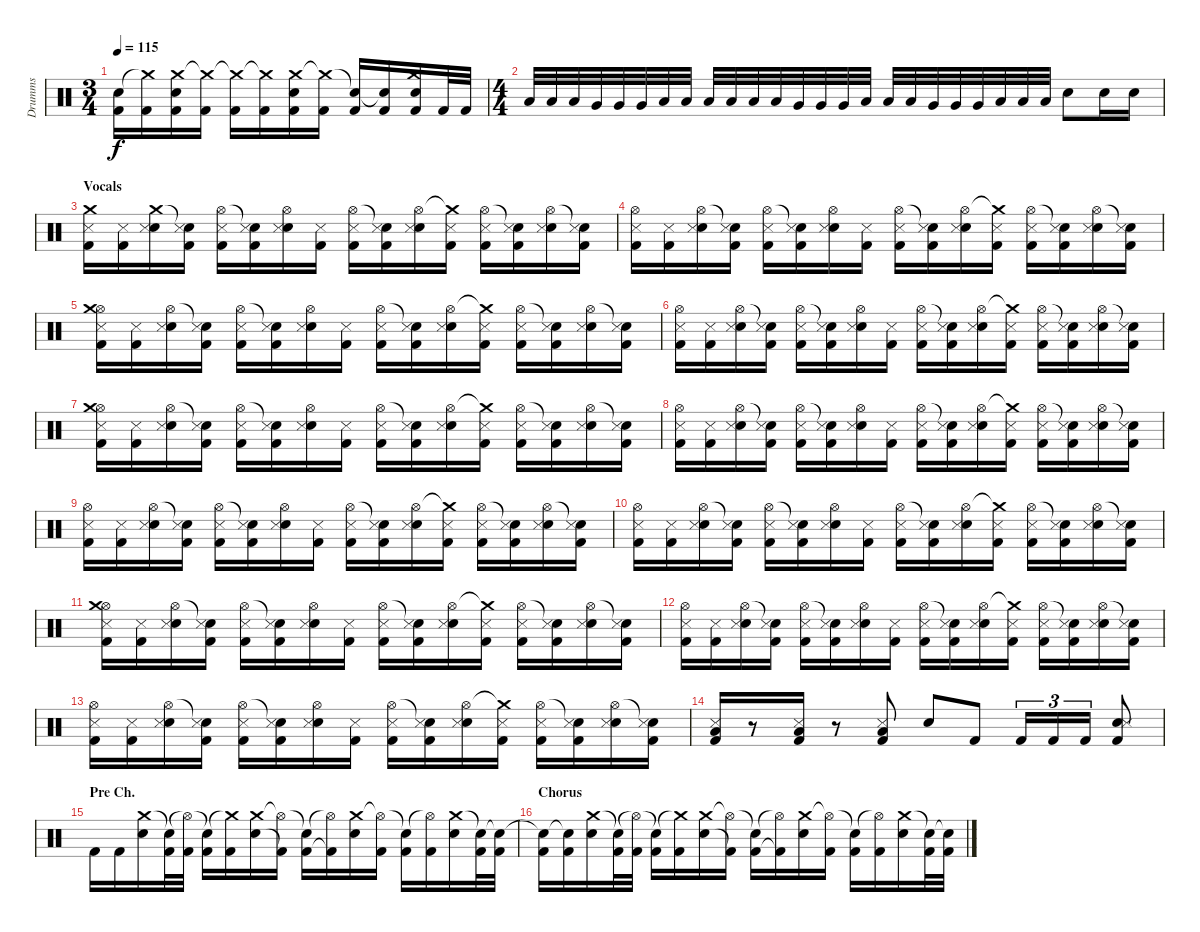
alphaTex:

\track ("Drumms" "Drumms") {instrument percussion}
\staff {score}
\articulation defaults
\ts (3 4)
\tempo 115
\clef neutral
\ks c
("Snare (hit)"{t} "Kick (hit) 2").16{dy f} ("Crash medium (hit)"{t} "Kick (hit) 2").16 ("Crash medium (hit)" "Kick (hit) 2" "Electric Snare (hit)").16 ("Crash medium (hit)"{t} "Kick (hit) 2").16 ("Crash medium (hit)"{t} "Kick (hit) 2").16 ("Crash medium (hit)"{t} "Kick (hit) 2").16 ("Crash medium (hit)" "Kick (hit) 2" "Electric Snare (hit)").16 ("Crash medium (hit)"{t} "Kick (hit) 2").16 ("Snare (hit)"{t} "Kick (hit) 2").16 ("Snare (hit)"{t} "Kick (hit) 2").16 ("Crash medium (hit)" "Kick (hit) 2" "Electric Snare (hit)").16 "Kick (hit) 2".32 "Kick (hit) 2".32 |
\ts (4 4)
"Low Floor Tom (hit)".32 "Low Floor Tom (hit)".32 "Low Floor Tom (hit)".32 "Very Low Tom (hit)".32 "Very Low Tom (hit)".32 "Very Low Tom (hit)".32 "Low Tom (hit)".32 "Low Tom (hit)".32 "Low Tom (hit)".32 "Low Floor Tom (hit)".32 "Low Floor Tom (hit)".32 "Low Floor Tom (hit)".32 "Very Low Tom (hit)".32 "Very Low Tom (hit)".32 "Very Low Tom (hit)".32 "Low Tom (hit)".32 "Low Tom (hit)".32 "Low Tom (hit)".32 "Very Low Tom (hit)".32 "Very Low Tom (hit)".32 "Very Low Tom (hit)".32 "Low Tom (hit)".32 "Low Tom (hit)".32 "Low Tom (hit)".32 "Electric Snare (hit)".8 "Electric Snare (hit)".16 "Electric Snare (hit)".16 |
\section ("" "Vocals")
("Crash medium (hit)" "Kick (hit) 2" "Snare (side stick) 3").16 ("Kick (hit) 2" "Snare (side stick) 3").16 ("Crash medium (hit)" "Electric Snare (hit)" "Snare (side stick) 3").16 ("Snare (hit)"{t} "Kick (hit) 2" "Snare (side stick) 3").16 ("Hi-Hat (open)" "Kick (hit) 2" "Snare (side stick) 3").16 ("Snare (hit)"{t} "Kick (hit) 2" "Snare (side stick) 3").16 ("Hi-Hat (open)" "Electric Snare (hit)" "Snare (side stick) 3").16 ("Kick (hit) 2" "Snare (side stick) 3").16 ("Hi-Hat (open)" "Kick (hit) 2" "Snare (side stick) 3").16 ("Snare (hit)"{t} "Kick (hit) 2" "Snare (side stick) 3").16 ("Hi-Hat (open)" "Electric Snare (hit)" "Snare (side stick) 3").16 ("Crash medium (hit)"{t} "Kick (hit) 2" "Snare (side stick) 3").16 ("Hi-Hat (open)" "Kick (hit) 2" "Snare (side stick) 3").16 ("Snare (hit)"{t} "Kick (hit) 2" "Snare (side stick) 3").16 ("Hi-Hat (open)" "Electric Snare (hit)" "Snare (side stick) 3").16 ("Snare (hit)"{t} "Kick (hit) 2" "Snare (side stick) 3").16 |
("Hi-Hat (open)" "Kick (hit) 2" "Snare (side stick) 3").16 ("Kick (hit) 2" "Snare (side stick) 3").16 ("Hi-Hat (open)" "Electric Snare (hit)" "Snare (side stick) 3").16 ("Snare (hit)"{t} "Kick (hit) 2" "Snare (side stick) 3").16 ("Hi-Hat (open)" "Kick (hit) 2" "Snare (side stick) 3").16 ("Snare (hit)"{t} "Kick (hit) 2" "Snare (side stick) 3").16 ("Hi-Hat (open)" "Electric Snare (hit)" "Snare (side stick) 3").16 ("Kick (hit) 2" "Snare (side stick) 3").16 ("Hi-Hat (open)" "Kick (hit) 2" "Snare (side stick) 3").16 ("Snare (hit)"{t} "Kick (hit) 2" "Snare (side stick) 3").16 ("Hi-Hat (open)" "Electric Snare (hit)" "Snare (side stick) 3").16 ("Crash medium (hit)"{t} "Kick (hit) 2" "Snare (side stick) 3").16 ("Hi-Hat (open)" "Kick (hit) 2" "Snare (side stick) 3").16 ("Snare (hit)"{t} "Kick (hit) 2" "Snare (side stick) 3").16 ("Hi-Hat (open)" "Electric Snare (hit)" "Snare (side stick) 3").16 ("Snare (hit)"{t} "Kick (hit) 2" "Snare (side stick) 3").16 |
("Hi-Hat (open)" "Crash medium (hit)" "Kick (hit) 2" "Snare (side stick) 3").16 ("Kick (hit) 2" "Snare (side stick) 3").16 ("Hi-Hat (open)" "Electric Snare (hit)" "Snare (side stick) 3").16 ("Snare (hit)"{t} "Kick (hit) 2" "Snare (side stick) 3").16 ("Hi-Hat (open)" "Kick (hit) 2" "Snare (side stick) 3").16 ("Snare (hit)"{t} "Kick (hit) 2" "Snare (side stick) 3").16 ("Hi-Hat (open)" "Electric Snare (hit)" "Snare (side stick) 3").16 ("Kick (hit) 2" "Snare (side stick) 3").16 ("Hi-Hat (open)" "Kick (hit) 2" "Snare (side stick) 3").16 ("Snare (hit)"{t} "Kick (hit) 2" "Snare (side stick) 3").16 ("Hi-Hat (open)" "Electric Snare (hit)" "Snare (side stick) 3").16 ("Crash medium (hit)"{t} "Kick (hit) 2" "Snare (side stick) 3").16 ("Hi-Hat (open)" "Kick (hit) 2" "Snare (side stick) 3").16 ("Snare (hit)"{t} "Kick (hit) 2" "Snare (side stick) 3").16 ("Hi-Hat (open)" "Electric Snare (hit)" "Snare (side stick) 3").16 ("Snare (hit)"{t} "Kick (hit) 2" "Snare (side stick) 3").16 |
("Hi-Hat (open)" "Kick (hit) 2" "Snare (side stick) 3").16 ("Kick (hit) 2" "Snare (side stick) 3").16 ("Hi-Hat (open)" "Electric Snare (hit)" "Snare (side stick) 3").16 ("Snare (hit)"{t} "Kick (hit) 2" "Snare (side stick) 3").16 ("Hi-Hat (open)" "Kick (hit) 2" "Snare (side stick) 3").16 ("Snare (hit)"{t} "Kick (hit) 2" "Snare (side stick) 3").16 ("Hi-Hat (open)" "Electric Snare (hit)" "Snare (side stick) 3").16 ("Kick (hit) 2" "Snare (side stick) 3").16 ("Hi-Hat (open)" "Kick (hit) 2" "Snare (side stick) 3").16 ("Snare (hit)"{t} "Kick (hit) 2" "Snare (side stick) 3").16 ("Hi-Hat (open)" "Electric Snare (hit)" "Snare (side stick) 3").16 ("Crash medium (hit)"{t} "Kick (hit) 2" "Snare (side stick) 3").16 ("Hi-Hat (open)" "Kick (hit) 2" "Snare (side stick) 3").16 ("Snare (hit)"{t} "Kick (hit) 2" "Snare (side stick) 3").16 ("Hi-Hat (open)" "Electric Snare (hit)" "Snare (side stick) 3").16 ("Snare (hit)"{t} "Kick (hit) 2" "Snare (side stick) 3").16 |
("Hi-Hat (open)" "Crash medium (hit)" "Kick (hit) 2" "Snare (side stick) 3").16 ("Kick (hit) 2" "Snare (side stick) 3").16 ("Hi-Hat (open)" "Electric Snare (hit)" "Snare (side stick) 3").16 ("Snare (hit)"{t} "Kick (hit) 2" "Snare (side stick) 3").16 ("Hi-Hat (open)" "Kick (hit) 2" "Snare (side stick) 3").16 ("Snare (hit)"{t} "Kick (hit) 2" "Snare (side stick) 3").16 ("Hi-Hat (open)" "Electric Snare (hit)" "Snare (side stick) 3").16 ("Kick (hit) 2" "Snare (side stick) 3").16 ("Hi-Hat (open)" "Kick (hit) 2" "Snare (side stick) 3").16 ("Snare (hit)"{t} "Kick (hit) 2" "Snare (side stick) 3").16 ("Hi-Hat (open)" "Electric Snare (hit)" "Snare (side stick) 3").16 ("Crash medium (hit)"{t} "Kick (hit) 2" "Snare (side stick) 3").16 ("Hi-Hat (open)" "Kick (hit) 2" "Snare (side stick) 3").16 ("Snare (hit)"{t} "Kick (hit) 2" "Snare (side stick) 3").16 ("Hi-Hat (open)" "Electric Snare (hit)" "Snare (side stick) 3").16 ("Snare (hit)"{t} "Kick (hit) 2" "Snare (side stick) 3").16 |
("Hi-Hat (open)" "Kick (hit) 2" "Snare (side stick) 3").16 ("Kick (hit) 2" "Snare (side stick) 3").16 ("Hi-Hat (open)" "Electric Snare (hit)" "Snare (side stick) 3").16 ("Snare (hit)"{t} "Kick (hit) 2" "Snare (side stick) 3").16 ("Hi-Hat (open)" "Kick (hit) 2" "Snare (side stick) 3").16 ("Snare (hit)"{t} "Kick (hit) 2" "Snare (side stick) 3").16 ("Hi-Hat (open)" "Electric Snare (hit)" "Snare (side stick) 3").16 ("Kick (hit) 2" "Snare (side stick) 3").16 ("Hi-Hat (open)" "Kick (hit) 2" "Snare (side stick) 3").16 ("Snare (hit)"{t} "Kick (hit) 2" "Snare (side stick) 3").16 ("Hi-Hat (open)" "Electric Snare (hit)" "Snare (side stick) 3").16 ("Crash medium (hit)"{t} "Kick (hit) 2" "Snare (side stick) 3").16 ("Hi-Hat (open)" "Kick (hit) 2" "Snare (side stick) 3").16 ("Snare (hit)"{t} "Kick (hit) 2" "Snare (side stick) 3").16 ("Hi-Hat (open)" "Electric Snare (hit)" "Snare (side stick) 3").16 ("Snare (hit)"{t} "Kick (hit) 2" "Snare (side stick) 3").16 |
("Hi-Hat (open)" "Kick (hit) 2" "Snare (side stick) 3").16 ("Kick (hit) 2" "Snare (side stick) 3").16 ("Hi-Hat (open)" "Electric Snare (hit)" "Snare (side stick) 3").16 ("Snare (hit)"{t} "Kick (hit) 2" "Snare (side stick) 3").16 ("Hi-Hat (open)" "Kick (hit) 2" "Snare (side stick) 3").16 ("Snare (hit)"{t} "Kick (hit) 2" "Snare (side stick) 3").16 ("Hi-Hat (open)" "Electric Snare (hit)" "Snare (side stick) 3").16 ("Kick (hit) 2" "Snare (side stick) 3").16 ("Hi-Hat (open)" "Kick (hit) 2" "Snare (side stick) 3").16 ("Snare (hit)"{t} "Kick (hit) 2" "Snare (side stick) 3").16 ("Hi-Hat (open)" "Electric Snare (hit)" "Snare (side stick) 3").16 ("Crash medium (hit)"{t} "Kick (hit) 2" "Snare (side stick) 3").16 ("Hi-Hat (open)" "Kick (hit) 2" "Snare (side stick) 3").16 ("Snare (hit)"{t} "Kick (hit) 2" "Snare (side stick) 3").16 ("Hi-Hat (open)" "Electric Snare (hit)" "Snare (side stick) 3").16 ("Snare (hit)"{t} "Kick (hit) 2" "Snare (side stick) 3").16 |
("Hi-Hat (open)" "Kick (hit) 2" "Snare (side stick) 3").16 ("Kick (hit) 2" "Snare (side stick) 3").16 ("Hi-Hat (open)" "Electric Snare (hit)" "Snare (side stick) 3").16 ("Snare (hit)"{t} "Kick (hit) 2" "Snare (side stick) 3").16 ("Hi-Hat (open)" "Kick (hit) 2" "Snare (side stick) 3").16 ("Snare (hit)"{t} "Kick (hit) 2" "Snare (side stick) 3").16 ("Hi-Hat (open)" "Electric Snare (hit)" "Snare (side stick) 3").16 ("Kick (hit) 2" "Snare (side stick) 3").16 ("Hi-Hat (open)" "Kick (hit) 2" "Snare (side stick) 3").16 ("Snare (hit)"{t} "Kick (hit) 2" "Snare (side stick) 3").16 ("Hi-Hat (open)" "Electric Snare (hit)" "Snare (side stick) 3").16 ("Crash medium (hit)"{t} "Kick (hit) 2" "Snare (side stick) 3").16 ("Hi-Hat (open)" "Kick (hit) 2" "Snare (side stick) 3").16 ("Snare (hit)"{t} "Kick (hit) 2" "Snare (side stick) 3").16 ("Hi-Hat (open)" "Electric Snare (hit)" "Snare (side stick) 3").16 ("Snare (hit)"{t} "Kick (hit) 2" "Snare (side stick) 3").16 |
("Hi-Hat (open)" "Crash medium (hit)" "Kick (hit) 2" "Snare (side stick) 3").16 ("Kick (hit) 2" "Snare (side stick) 3").16 ("Hi-Hat (open)" "Electric Snare (hit)" "Snare (side stick) 3").16 ("Snare (hit)"{t} "Kick (hit) 2" "Snare (side stick) 3").16 ("Hi-Hat (open)" "Kick (hit) 2" "Snare (side stick) 3").16 ("Snare (hit)"{t} "Kick (hit) 2" "Snare (side stick) 3").16 ("Hi-Hat (open)" "Electric Snare (hit)" "Snare (side stick) 3").16 ("Kick (hit) 2" "Snare (side stick) 3").16 ("Hi-Hat (open)" "Kick (hit) 2" "Snare (side stick) 3").16 ("Snare (hit)"{t} "Kick (hit) 2" "Snare (side stick) 3").16 ("Hi-Hat (open)" "Electric Snare (hit)" "Snare (side stick) 3").16 ("Crash medium (hit)"{t} "Kick (hit) 2" "Snare (side stick) 3").16 ("Hi-Hat (open)" "Kick (hit) 2" "Snare (side stick) 3").16 ("Snare (hit)"{t} "Kick (hit) 2" "Snare (side stick) 3").16 ("Hi-Hat (open)" "Electric Snare (hit)" "Snare (side stick) 3").16 ("Snare (hit)"{t} "Kick (hit) 2" "Snare (side stick) 3").16 |
("Hi-Hat (open)" "Kick (hit) 2" "Snare (side stick) 3").16 ("Kick (hit) 2" "Snare (side stick) 3").16 ("Hi-Hat (open)" "Electric Snare (hit)" "Snare (side stick) 3").16 ("Snare (hit)"{t} "Kick (hit) 2" "Snare (side stick) 3").16 ("Hi-Hat (open)" "Kick (hit) 2" "Snare (side stick) 3").16 ("Snare (hit)"{t} "Kick (hit) 2" "Snare (side stick) 3").16 ("Hi-Hat (open)" "Electric Snare (hit)" "Snare (side stick) 3").16 ("Kick (hit) 2" "Snare (side stick) 3").16 ("Hi-Hat (open)" "Kick (hit) 2" "Snare (side stick) 3").16 ("Snare (hit)"{t} "Kick (hit) 2" "Snare (side stick) 3").16 ("Hi-Hat (open)" "Electric Snare (hit)" "Snare (side stick) 3").16 ("Crash medium (hit)"{t} "Kick (hit) 2" "Snare (side stick) 3").16 ("Hi-Hat (open)" "Kick (hit) 2" "Snare (side stick) 3").16 ("Snare (hit)"{t} "Kick (hit) 2" "Snare (side stick) 3").16 ("Hi-Hat (open)" "Electric Snare (hit)" "Snare (side stick) 3").16 ("Snare (hit)"{t} "Kick (hit) 2" "Snare (side stick) 3").16 |
("Hi-Hat (open)" "Kick (hit) 2" "Snare (side stick) 3").16 ("Kick (hit) 2" "Snare (side stick) 3").16 ("Hi-Hat (open)" "Electric Snare (hit)" "Snare (side stick) 3").16 ("Snare (hit)"{t} "Kick (hit) 2" "Snare (side stick) 3").16 ("Hi-Hat (open)" "Kick (hit) 2" "Snare (side stick) 3").16 ("Snare (hit)"{t} "Kick (hit) 2" "Snare (side stick) 3").16 ("Hi-Hat (open)" "Electric Snare (hit)" "Snare (side stick) 3").16 ("Kick (hit) 2" "Snare (side stick) 3").16 ("Hi-Hat (open)" "Kick (hit) 2" "Snare (side stick) 3").16 ("Snare (hit)"{t} "Kick (hit) 2" "Snare (side stick) 3").16 ("Hi-Hat (open)" "Electric Snare (hit)" "Snare (side stick) 3").16 ("Crash medium (hit)"{t} "Kick (hit) 2" "Snare (side stick) 3").16 ("Hi-Hat (open)" "Kick (hit) 2" "Snare (side stick) 3").16 ("Snare (hit)"{t} "Kick (hit) 2" "Snare (side stick) 3").16 ("Hi-Hat (open)" "Electric Snare (hit)" "Snare (side stick) 3").16 ("Snare (hit)"{t} "Kick (hit) 2" "Snare (side stick) 3").16 |
("Low Floor Tom (hit)" "Kick (hit) 2" "Snare (side stick) 3").16 r.8 ("Low Floor Tom (hit)" "Kick (hit) 2" "Snare (side stick) 3").16 r.8 ("Low Floor Tom (hit)" "Kick (hit) 2" "Snare (side stick) 3").8 "Electric Snare (hit)".8 "Kick (hit) 2".8 "Kick (hit) 2".16{tu (3 2)} "Kick (hit) 2".16{tu (3 2)} "Kick (hit) 2".16{tu (3 2)} ("Electric Snare (hit)" "Snare (side stick) 3" "Kick (hit) 2").8 |
\section ("" "Pre Ch.")
"Kick (hit) 2".16 "Kick (hit) 2".16 ("Crash medium (hit)" "Electric Snare (hit)").16 ("Snare (hit)"{t} "Kick (hit) 2").32 ("Hi-Hat (open)"{t} "Kick (hit) 2").32 ("Snare (hit)"{t} "Kick (hit) 2").16 ("Crash medium (hit)"{t} "Kick (hit) 2").16 ("Crash medium (hit)" "Electric Snare (hit)").16 ("Hi-Hat (open)"{t} "Kick (hit) 2"{t}).16 ("Snare (hit)"{t} "Kick (hit) 2").16 ("Hi-Hat (open)"{t} "Kick (hit) 2"{t}).16 ("Crash medium (hit)" "Electric Snare (hit)").16 ("Hi-Hat (open)"{t} "Kick (hit) 2").16 ("Snare (hit)"{t} "Kick (hit) 2").16 ("Hi-Hat (open)"{t} "Kick (hit) 2").16 ("Crash medium (hit)" "Electric Snare (hit)").16 ("Snare (hit)"{t} "Kick (hit) 2").32 ("Snare (hit)"{t} "Kick (hit) 2").32 |
\section ("" "Chorus")
("Snare (hit)"{t} "Kick (hit) 2").16 ("Snare (hit)"{t} "Kick (hit) 2").16 ("Crash medium (hit)" "Electric Snare (hit)").16 ("Snare (hit)"{t} "Kick (hit) 2").32 ("Hi-Hat (open)"{t} "Kick (hit) 2").32 ("Snare (hit)"{t} "Kick (hit) 2").16 ("Crash medium (hit)"{t} "Kick (hit) 2").16 ("Crash medium (hit)" "Electric Snare (hit)").16 ("Hi-Hat (open)"{t} "Kick (hit) 2"{t}).16 ("Snare (hit)"{t} "Kick (hit) 2").16 ("Hi-Hat (open)"{t} "Kick (hit) 2"{t}).16 ("Crash medium (hit)" "Electric Snare (hit)").16 ("Hi-Hat (open)"{t} "Kick (hit) 2").16 ("Snare (hit)"{t} "Kick (hit) 2").16 ("Hi-Hat (open)"{t} "Kick (hit) 2").16 ("Crash medium (hit)" "Electric Snare (hit)").16 ("Snare (hit)"{t} "Kick (hit) 2").32 ("Snare (hit)"{t} "Kick (hit) 2").32
